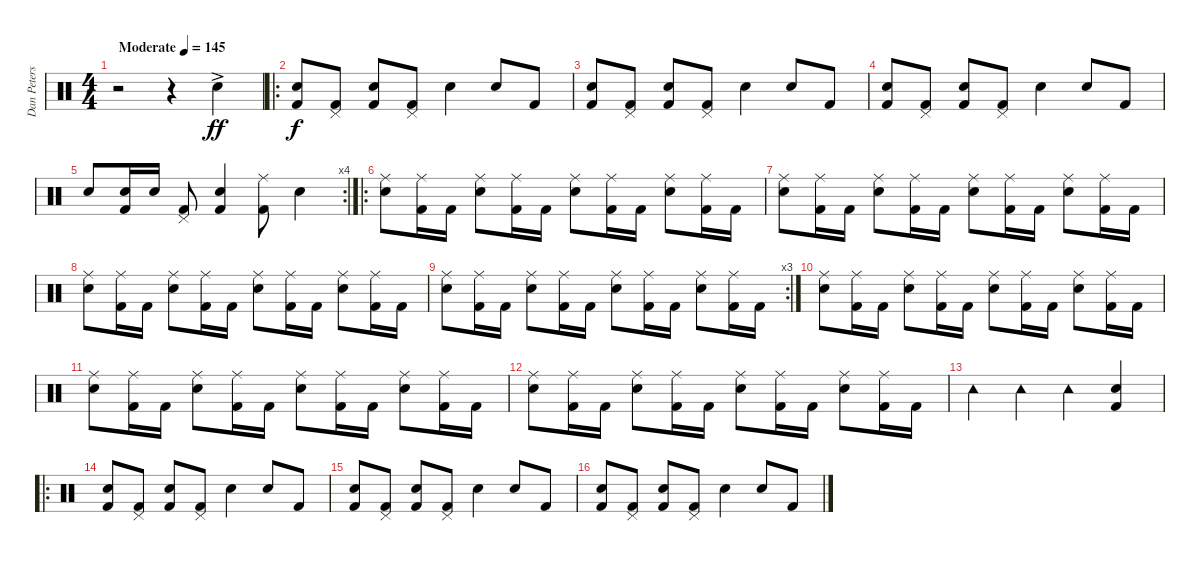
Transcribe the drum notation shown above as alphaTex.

\track ("Dan Peters-Drums" "Dan Peters") {instrument percussion}
\staff {score}
\articulation defaults
\ts (4 4)
\tempo (145 "Moderate")
\clef neutral
\ks c
r.2{dy ff} r.4 "Electric Snare (hit)"{ac}.4 |
\ro
("Electric Snare (hit)" "Kick (hit) 2").8{dy f} ("Kick (hit) 2" "Pedal Hi-Hat (hit)").8 ("Electric Snare (hit)" "Kick (hit) 2").8 ("Kick (hit) 2" "Pedal Hi-Hat (hit)").8 "Electric Snare (hit)".4 "Electric Snare (hit)".8 "Kick (hit) 2".8 |
("Electric Snare (hit)" "Kick (hit) 2").8 ("Kick (hit) 2" "Pedal Hi-Hat (hit)").8 ("Electric Snare (hit)" "Kick (hit) 2").8 ("Pedal Hi-Hat (hit)" "Kick (hit) 2").8 "Electric Snare (hit)".4 "Electric Snare (hit)".8 "Kick (hit) 2".8 |
("Electric Snare (hit)" "Kick (hit) 2").8 ("Kick (hit) 2" "Pedal Hi-Hat (hit)").8 ("Electric Snare (hit)" "Kick (hit) 2").8 ("Kick (hit) 2" "Pedal Hi-Hat (hit)").8 "Electric Snare (hit)".4 "Electric Snare (hit)".8 "Kick (hit) 2".8 |
\rc 4 "Electric Snare (hit)".8
("Kick (hit) 2" "Electric Snare (hit)").16 "Electric Snare (hit)".16 ("Kick (hit) 2" "Pedal Hi-Hat (hit)").8 ("Electric Snare (hit)" "Kick (hit) 2").4 ("Kick (hit) 2" "Ride (middle)").8 "Electric Snare (hit)".4 |
\ro
("Electric Snare (hit)" "Ride (middle)").8 ("Kick (hit) 2" "Ride (middle)").16 "Kick (hit) 2".16 ("Electric Snare (hit)" "Ride (middle)").8 ("Kick (hit) 2" "Ride (middle)").16 "Kick (hit) 2".16 ("Electric Snare (hit)" "Ride (middle)").8 ("Kick (hit) 2" "Ride (middle)").16 "Kick (hit) 2".16 ("Electric Snare (hit)" "Ride (middle)").8 ("Kick (hit) 2" "Ride (middle)").16 "Kick (hit) 2".16 |
("Electric Snare (hit)" "Ride (middle)").8 ("Kick (hit) 2" "Ride (middle)").16 "Kick (hit) 2".16 ("Electric Snare (hit)" "Ride (middle)").8 ("Kick (hit) 2" "Ride (middle)").16 "Kick (hit) 2".16 ("Electric Snare (hit)" "Ride (middle)").8 ("Kick (hit) 2" "Ride (middle)").16 "Kick (hit) 2".16 ("Electric Snare (hit)" "Ride (middle)").8 ("Kick (hit) 2" "Ride (middle)").16 "Kick (hit) 2".16 |
("Electric Snare (hit)" "Ride (middle)").8 ("Kick (hit) 2" "Ride (middle)").16 "Kick (hit) 2".16 ("Electric Snare (hit)" "Ride (middle)").8 ("Kick (hit) 2" "Ride (middle)").16 "Kick (hit) 2".16 ("Electric Snare (hit)" "Ride (middle)").8 ("Kick (hit) 2" "Ride (middle)").16 "Kick (hit) 2".16 ("Electric Snare (hit)" "Ride (middle)").8 ("Kick (hit) 2" "Ride (middle)").16 "Kick (hit) 2".16 |
\rc 3
("Electric Snare (hit)" "Ride (middle)").8 ("Kick (hit) 2" "Ride (middle)").16 "Kick (hit) 2".16 ("Electric Snare (hit)" "Ride (middle)").8 ("Kick (hit) 2" "Ride (middle)").16 "Kick (hit) 2".16 ("Electric Snare (hit)" "Ride (middle)").8 ("Kick (hit) 2" "Ride (middle)").16 "Kick (hit) 2".16 ("Electric Snare (hit)" "Ride (middle)").8 ("Kick (hit) 2" "Ride (middle)").16 "Kick (hit) 2".16 |
("Electric Snare (hit)" "Ride (middle)").8 ("Kick (hit) 2" "Ride (middle)").16 "Kick (hit) 2".16 ("Electric Snare (hit)" "Ride (middle)").8 ("Kick (hit) 2" "Ride (middle)").16 "Kick (hit) 2".16 ("Electric Snare (hit)" "Ride (middle)").8 ("Kick (hit) 2" "Ride (middle)").16 "Kick (hit) 2".16 ("Electric Snare (hit)" "Ride (middle)").8 ("Kick (hit) 2" "Ride (middle)").16 "Kick (hit) 2".16 |
("Electric Snare (hit)" "Ride (middle)").8 ("Kick (hit) 2" "Ride (middle)").16 "Kick (hit) 2".16 ("Electric Snare (hit)" "Ride (middle)").8 ("Kick (hit) 2" "Ride (middle)").16 "Kick (hit) 2".16 ("Electric Snare (hit)" "Ride (middle)").8 ("Kick (hit) 2" "Ride (middle)").16 "Kick (hit) 2".16 ("Electric Snare (hit)" "Ride (middle)").8 ("Kick (hit) 2" "Ride (middle)").16 "Kick (hit) 2".16 |
("Electric Snare (hit)" "Ride (middle)").8 ("Kick (hit) 2" "Ride (middle)").16 "Kick (hit) 2".16 ("Electric Snare (hit)" "Ride (middle)").8 ("Kick (hit) 2" "Ride (middle)").16 "Kick (hit) 2".16 ("Electric Snare (hit)" "Ride (middle)").8 ("Kick (hit) 2" "Ride (middle)").16 "Kick (hit) 2".16 ("Electric Snare (hit)" "Ride (middle)").8 ("Kick (hit) 2" "Ride (middle)").16 "Kick (hit) 2".16 |
"Tambourine (hit)".4 "Tambourine (hit)".4 "Tambourine (hit)".4 ("Electric Snare (hit)" "Kick (hit) 2").4 |
\ro
("Electric Snare (hit)" "Kick (hit) 2").8 ("Kick (hit) 2" "Pedal Hi-Hat (hit)").8 ("Electric Snare (hit)" "Kick (hit) 2").8 ("Kick (hit) 2" "Pedal Hi-Hat (hit)").8 "Electric Snare (hit)".4 "Electric Snare (hit)".8 "Kick (hit) 2".8 |
("Electric Snare (hit)" "Kick (hit) 2").8 ("Kick (hit) 2" "Pedal Hi-Hat (hit)").8 ("Electric Snare (hit)" "Kick (hit) 2").8 ("Pedal Hi-Hat (hit)" "Kick (hit) 2").8 "Electric Snare (hit)".4 "Electric Snare (hit)".8 "Kick (hit) 2".8 |
("Electric Snare (hit)" "Kick (hit) 2").8 ("Kick (hit) 2" "Pedal Hi-Hat (hit)").8 ("Electric Snare (hit)" "Kick (hit) 2").8 ("Kick (hit) 2" "Pedal Hi-Hat (hit)").8 "Electric Snare (hit)".4 "Electric Snare (hit)".8 "Kick (hit) 2".8
